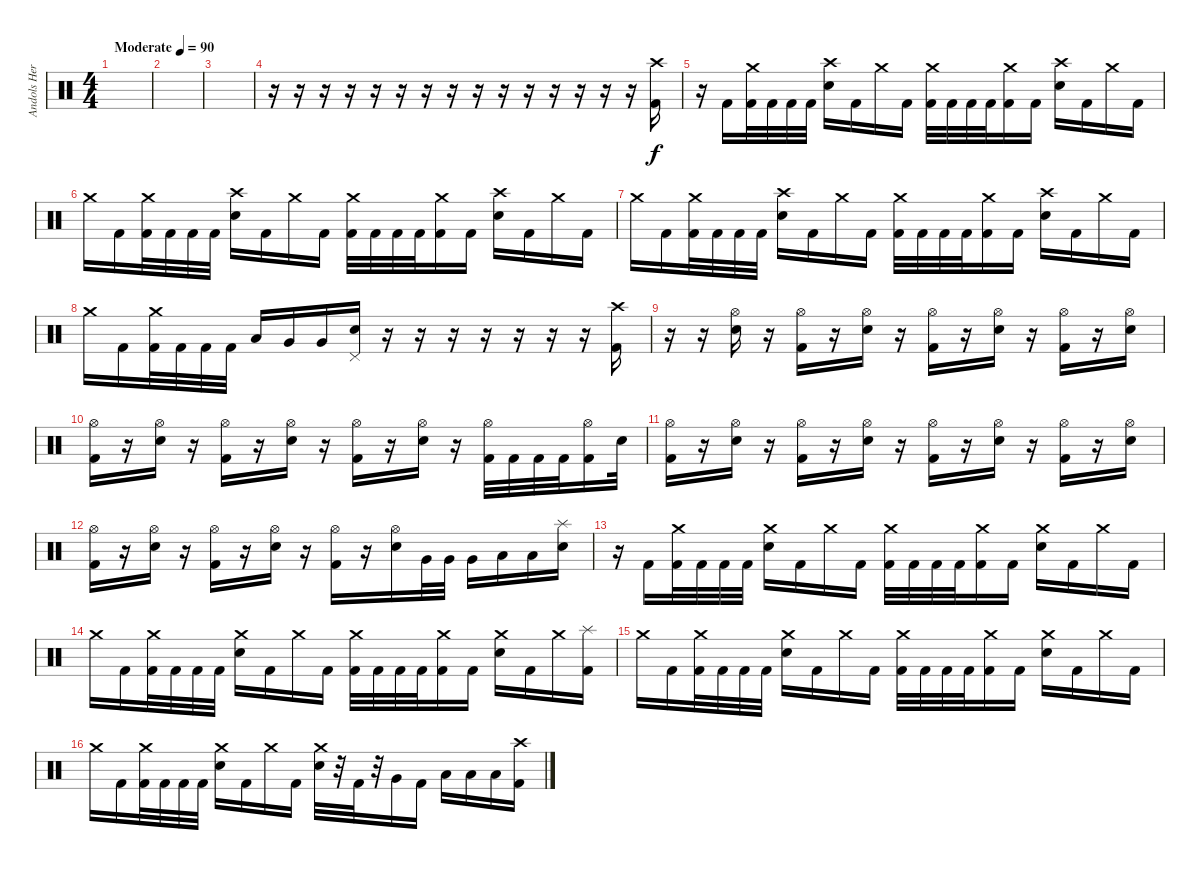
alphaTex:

\track ("Andols Herrick" "Andols Her") {instrument percussion}
\staff {score}
\articulation defaults
\ts (4 4)
\tempo (90 "Moderate")
\clef neutral
\ks c
|
|
|
r.16 r.16 r.16 r.16 r.16 r.16 r.16 r.16 r.16 r.16 r.16 r.16 r.16 r.16 r.16 ("Crash high (hit)" "Kick (hit) 2").16 |
r.16 "Kick (hit) 2".16 ("Crash medium (hit)" "Kick (hit) 2").32 "Kick (hit) 2".32 "Kick (hit) 2".32 "Kick (hit) 2".32 ("Crash high (hit)" "Electric Snare (hit)").16 "Kick (hit) 2".16 "Crash medium (hit)".16 "Kick (hit) 2".16 ("Crash medium (hit)" "Kick (hit) 2").32 "Kick (hit) 2".32 "Kick (hit) 2".32 "Kick (hit) 2".32 ("Crash medium (hit)" "Kick (hit) 2").16 "Kick (hit) 2".16 ("Crash high (hit)" "Electric Snare (hit)").16 "Kick (hit) 2".16 "Crash medium (hit)".16 "Kick (hit) 2".16 |
"Crash medium (hit)".16 "Kick (hit) 2".16 ("Crash medium (hit)" "Kick (hit) 2").32 "Kick (hit) 2".32 "Kick (hit) 2".32 "Kick (hit) 2".32 ("Crash high (hit)" "Electric Snare (hit)").16 "Kick (hit) 2".16 "Crash medium (hit)".16 "Kick (hit) 2".16 ("Crash medium (hit)" "Kick (hit) 2").32 "Kick (hit) 2".32 "Kick (hit) 2".32 "Kick (hit) 2".32 ("Crash medium (hit)" "Kick (hit) 2").16 "Kick (hit) 2".16 ("Crash high (hit)" "Electric Snare (hit)").16 "Kick (hit) 2".16 "Crash medium (hit)".16 "Kick (hit) 2".16 |
"Crash medium (hit)".16 "Kick (hit) 2".16 ("Crash medium (hit)" "Kick (hit) 2").32 "Kick (hit) 2".32 "Kick (hit) 2".32 "Kick (hit) 2".32 ("Crash high (hit)" "Electric Snare (hit)").16 "Kick (hit) 2".16 "Crash medium (hit)".16 "Kick (hit) 2".16 ("Crash medium (hit)" "Kick (hit) 2").32 "Kick (hit) 2".32 "Kick (hit) 2".32 "Kick (hit) 2".32 ("Crash medium (hit)" "Kick (hit) 2").16 "Kick (hit) 2".16 ("Crash high (hit)" "Electric Snare (hit)").16 "Kick (hit) 2".16 "Crash medium (hit)".16 "Kick (hit) 2".16 |
"Crash medium (hit)".16 "Kick (hit) 2".16 ("Crash medium (hit)" "Kick (hit) 2").32 "Kick (hit) 2".32 "Kick (hit) 2".32 "Kick (hit) 2".32 "Low Tom (hit)".16 "Very Low Tom (hit)".16 "Very Low Tom (hit)".16 ("Pedal Hi-Hat (hit)" "Electric Snare (hit)").16 r.16 r.16 r.16 r.16 r.16 r.16 r.16 ("Crash high (hit)" "Kick (hit) 2").16 |
r.16 r.16 ("Hi-Hat (open)" "Electric Snare (hit)").16 r.16 ("Hi-Hat (open)" "Kick (hit) 2").16 r.16 ("Hi-Hat (open)" "Electric Snare (hit)").16 r.16 ("Hi-Hat (open)" "Kick (hit) 2").16 r.16 ("Hi-Hat (open)" "Electric Snare (hit)").16 r.16 ("Hi-Hat (open)" "Kick (hit) 2").16 r.16 ("Hi-Hat (open)" "Electric Snare (hit)").16 |
("Hi-Hat (open)" "Kick (hit) 2").16 r.16 ("Hi-Hat (open)" "Electric Snare (hit)").16 r.16 ("Hi-Hat (open)" "Kick (hit) 2").16 r.16 ("Hi-Hat (open)" "Electric Snare (hit)").16 r.16 ("Hi-Hat (open)" "Kick (hit) 2").16 r.16 ("Hi-Hat (open)" "Electric Snare (hit)").16 r.16 ("Hi-Hat (open)" "Kick (hit) 2").32 "Kick (hit) 2".32 "Kick (hit) 2".32 "Kick (hit) 2".32 ("Hi-Hat (open)" "Kick (hit) 2").16 "Electric Snare (hit)".32 |
("Hi-Hat (open)" "Kick (hit) 2").16 r.16 ("Hi-Hat (open)" "Electric Snare (hit)").16 r.16 ("Hi-Hat (open)" "Kick (hit) 2").16 r.16 ("Hi-Hat (open)" "Electric Snare (hit)").16 r.16 ("Hi-Hat (open)" "Kick (hit) 2").16 r.16 ("Hi-Hat (open)" "Electric Snare (hit)").16 r.16 ("Hi-Hat (open)" "Kick (hit) 2").16 r.16 ("Hi-Hat (open)" "Electric Snare (hit)").16 |
("Hi-Hat (open)" "Kick (hit) 2").16 r.16 ("Hi-Hat (open)" "Electric Snare (hit)").16 r.16 ("Hi-Hat (open)" "Kick (hit) 2").16 r.16 ("Hi-Hat (open)" "Electric Snare (hit)").16 r.16 ("Hi-Hat (open)" "Kick (hit) 2").16 r.16 ("Hi-Hat (open)" "Electric Snare (hit)").16 "Very Low Tom (hit)".32 "Very Low Tom (hit)".32 "Very Low Tom (hit)".16 "Low Tom (hit)".16 "Low Tom (hit)".16 ("Splash (hit)" "Electric Snare (hit)").16 |
r.16 "Kick (hit) 2".16 ("Crash medium (hit)" "Kick (hit) 2").32 "Kick (hit) 2".32 "Kick (hit) 2".32 "Kick (hit) 2".32 ("Crash medium (hit)" "Electric Snare (hit)").16 "Kick (hit) 2".16 "Crash medium (hit)".16 "Kick (hit) 2".16 ("Crash medium (hit)" "Kick (hit) 2").32 "Kick (hit) 2".32 "Kick (hit) 2".32 "Kick (hit) 2".32 ("Crash medium (hit)" "Kick (hit) 2").16 "Kick (hit) 2".16 ("Crash medium (hit)" "Electric Snare (hit)").16 "Kick (hit) 2".16 "Crash medium (hit)".16 "Kick (hit) 2".16 |
"Crash medium (hit)".16 "Kick (hit) 2".16 ("Crash medium (hit)" "Kick (hit) 2").32 "Kick (hit) 2".32 "Kick (hit) 2".32 "Kick (hit) 2".32 ("Crash medium (hit)" "Electric Snare (hit)").16 "Kick (hit) 2".16 "Crash medium (hit)".16 "Kick (hit) 2".16 ("Crash medium (hit)" "Kick (hit) 2").32 "Kick (hit) 2".32 "Kick (hit) 2".32 "Kick (hit) 2".32 ("Crash medium (hit)" "Kick (hit) 2").16 "Kick (hit) 2".16 ("Crash medium (hit)" "Electric Snare (hit)").16 "Kick (hit) 2".16 "Crash medium (hit)".16 ("Splash (hit)" "Kick (hit) 2").16 |
"Crash medium (hit)".16 "Kick (hit) 2".16 ("Crash medium (hit)" "Kick (hit) 2").32 "Kick (hit) 2".32 "Kick (hit) 2".32 "Kick (hit) 2".32 ("Crash medium (hit)" "Electric Snare (hit)").16 "Kick (hit) 2".16 "Crash medium (hit)".16 "Kick (hit) 2".16 ("Crash medium (hit)" "Kick (hit) 2").32 "Kick (hit) 2".32 "Kick (hit) 2".32 "Kick (hit) 2".32 ("Crash medium (hit)" "Kick (hit) 2").16 "Kick (hit) 2".16 ("Crash medium (hit)" "Electric Snare (hit)").16 "Kick (hit) 2".16 "Crash medium (hit)".16 "Kick (hit) 2".16 |
"Crash medium (hit)".16 "Kick (hit) 2".16 ("Crash medium (hit)" "Kick (hit) 2").32 "Kick (hit) 2".32 "Kick (hit) 2".32 "Kick (hit) 2".32 ("Crash medium (hit)" "Electric Snare (hit)").16 "Kick (hit) 2".16 "Crash medium (hit)".16 "Kick (hit) 2".16 ("Crash medium (hit)" "Electric Snare (hit)").32 r.32 "Kick (hit) 2".32 r.32 "Very Low Tom (hit)".16 "Kick (hit) 2".16 "Low Tom (hit)".16 "Low Tom (hit)".16 "Low Tom (hit)".16 ("Crash high (hit)" "Kick (hit) 2").16
